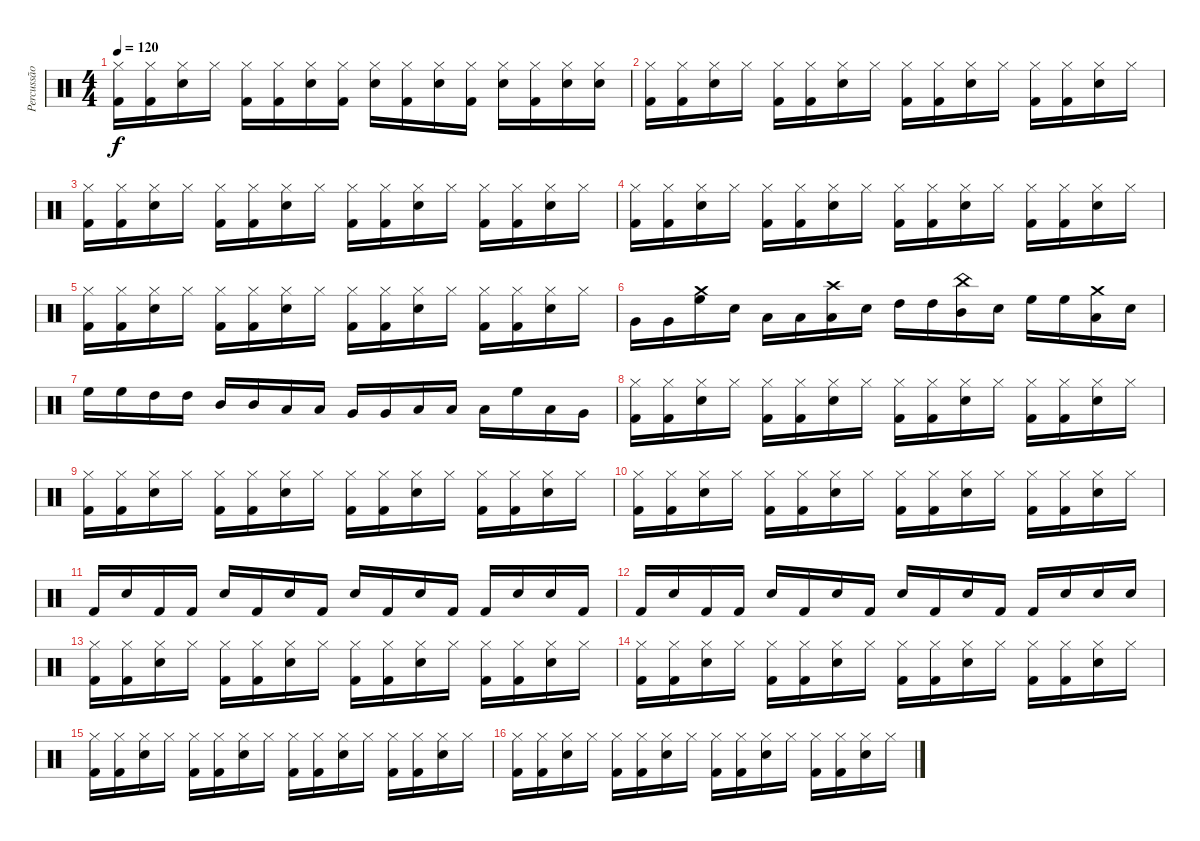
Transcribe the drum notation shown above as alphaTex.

\track ("Percussão" "Percussão") {instrument percussion}
\staff {score}
\articulation defaults
\ts (4 4)
\tempo 120
\clef neutral
\ks c
("Hi-Hat (closed)" "Kick (hit) 2").16{dy f} ("Hi-Hat (closed)" "Kick (hit) 2").16 ("Hi-Hat (closed)" "Electric Snare (hit)").16 "Hi-Hat (closed)".16 ("Hi-Hat (closed)" "Kick (hit) 2").16 ("Hi-Hat (closed)" "Kick (hit) 2").16 ("Hi-Hat (closed)" "Electric Snare (hit)").16 ("Hi-Hat (closed)" "Kick (hit) 2").16 ("Hi-Hat (closed)" "Electric Snare (hit)").16 ("Hi-Hat (closed)" "Kick (hit) 2").16 ("Hi-Hat (closed)" "Electric Snare (hit)").16 ("Hi-Hat (closed)" "Kick (hit) 2").16 ("Hi-Hat (closed)" "Electric Snare (hit)").16 ("Hi-Hat (closed)" "Kick (hit) 2").16 ("Hi-Hat (closed)" "Electric Snare (hit)").16 ("Hi-Hat (closed)" "Electric Snare (hit)").16 |
("Hi-Hat (closed)" "Kick (hit) 2").16 ("Hi-Hat (closed)" "Kick (hit) 2").16 ("Hi-Hat (closed)" "Electric Snare (hit)").16 "Hi-Hat (closed)".16 ("Hi-Hat (closed)" "Kick (hit) 2").16 ("Hi-Hat (closed)" "Kick (hit) 2").16 ("Hi-Hat (closed)" "Electric Snare (hit)").16 "Hi-Hat (closed)".16 ("Hi-Hat (closed)" "Kick (hit) 2").16 ("Hi-Hat (closed)" "Kick (hit) 2").16 ("Hi-Hat (closed)" "Electric Snare (hit)").16 "Hi-Hat (closed)".16 ("Hi-Hat (closed)" "Kick (hit) 2").16 ("Hi-Hat (closed)" "Kick (hit) 2").16 ("Hi-Hat (closed)" "Electric Snare (hit)").16 "Hi-Hat (closed)".16 |
("Hi-Hat (closed)" "Kick (hit) 2").16 ("Hi-Hat (closed)" "Kick (hit) 2").16 ("Hi-Hat (closed)" "Electric Snare (hit)").16 "Hi-Hat (closed)".16 ("Hi-Hat (closed)" "Kick (hit) 2").16 ("Hi-Hat (closed)" "Kick (hit) 2").16 ("Hi-Hat (closed)" "Electric Snare (hit)").16 "Hi-Hat (closed)".16 ("Hi-Hat (closed)" "Kick (hit) 2").16 ("Hi-Hat (closed)" "Kick (hit) 2").16 ("Hi-Hat (closed)" "Electric Snare (hit)").16 "Hi-Hat (closed)".16 ("Hi-Hat (closed)" "Kick (hit) 2").16 ("Hi-Hat (closed)" "Kick (hit) 2").16 ("Hi-Hat (closed)" "Electric Snare (hit)").16 "Hi-Hat (closed)".16 |
("Hi-Hat (closed)" "Kick (hit) 2").16 ("Hi-Hat (closed)" "Kick (hit) 2").16 ("Hi-Hat (closed)" "Electric Snare (hit)").16 "Hi-Hat (closed)".16 ("Hi-Hat (closed)" "Kick (hit) 2").16 ("Hi-Hat (closed)" "Kick (hit) 2").16 ("Hi-Hat (closed)" "Electric Snare (hit)").16 "Hi-Hat (closed)".16 ("Hi-Hat (closed)" "Kick (hit) 2").16 ("Hi-Hat (closed)" "Kick (hit) 2").16 ("Hi-Hat (closed)" "Electric Snare (hit)").16 "Hi-Hat (closed)".16 ("Hi-Hat (closed)" "Kick (hit) 2").16 ("Hi-Hat (closed)" "Kick (hit) 2").16 ("Hi-Hat (closed)" "Electric Snare (hit)").16 "Hi-Hat (closed)".16 |
("Hi-Hat (closed)" "Kick (hit) 2").16 ("Hi-Hat (closed)" "Kick (hit) 2").16 ("Hi-Hat (closed)" "Electric Snare (hit)").16 "Hi-Hat (closed)".16 ("Hi-Hat (closed)" "Kick (hit) 2").16 ("Hi-Hat (closed)" "Kick (hit) 2").16 ("Hi-Hat (closed)" "Electric Snare (hit)").16 "Hi-Hat (closed)".16 ("Hi-Hat (closed)" "Kick (hit) 2").16 ("Hi-Hat (closed)" "Kick (hit) 2").16 ("Hi-Hat (closed)" "Electric Snare (hit)").16 "Hi-Hat (closed)".16 ("Hi-Hat (closed)" "Kick (hit) 2").16 ("Hi-Hat (closed)" "Kick (hit) 2").16 ("Hi-Hat (closed)" "Electric Snare (hit)").16 "Hi-Hat (closed)".16 |
"Very Low Tom (hit)".16 "Very Low Tom (hit)".16 ("Crash medium (hit)" "High Floor Tom (hit)").16 "Electric Snare (hit)".16 "Low Floor Tom (hit)".16 "Low Floor Tom (hit)".16 ("Crash high (hit)" "Low Tom (hit)").16 "Electric Snare (hit)".16 "High Tom (hit)".16 "High Tom (hit)".16 ("China (hit)" "Mid Tom (hit)").16 "Electric Snare (hit)".16 "High Floor Tom (hit)".16 "High Floor Tom (hit)".16 ("Crash medium (hit)" "Low Floor Tom (hit)").16 "Electric Snare (hit)".16 |
"High Floor Tom (hit)".16 "High Floor Tom (hit)".16 "High Tom (hit)".16 "High Tom (hit)".16 "Mid Tom (hit)".16 "Mid Tom (hit)".16 "Low Tom (hit)".16 "Low Tom (hit)".16 "Very Low Tom (hit)".16 "Very Low Tom (hit)".16 "Low Floor Tom (hit)".16 "Low Floor Tom (hit)".16 "Low Tom (hit)".16 "High Floor Tom (hit)".16 "Low Floor Tom (hit)".16 "Very Low Tom (hit)".16 |
("Hi-Hat (closed)" "Kick (hit) 2").16 ("Hi-Hat (closed)" "Kick (hit) 2").16 ("Hi-Hat (closed)" "Electric Snare (hit)").16 "Hi-Hat (closed)".16 ("Hi-Hat (closed)" "Kick (hit) 2").16 ("Hi-Hat (closed)" "Kick (hit) 2").16 ("Hi-Hat (closed)" "Electric Snare (hit)").16 "Hi-Hat (closed)".16 ("Hi-Hat (closed)" "Kick (hit) 2").16 ("Hi-Hat (closed)" "Kick (hit) 2").16 ("Hi-Hat (closed)" "Electric Snare (hit)").16 "Hi-Hat (closed)".16 ("Hi-Hat (closed)" "Kick (hit) 2").16 ("Hi-Hat (closed)" "Kick (hit) 2").16 ("Hi-Hat (closed)" "Electric Snare (hit)").16 "Hi-Hat (closed)".16 |
("Hi-Hat (closed)" "Kick (hit) 2").16 ("Hi-Hat (closed)" "Kick (hit) 2").16 ("Hi-Hat (closed)" "Electric Snare (hit)").16 "Hi-Hat (closed)".16 ("Hi-Hat (closed)" "Kick (hit) 2").16 ("Hi-Hat (closed)" "Kick (hit) 2").16 ("Hi-Hat (closed)" "Electric Snare (hit)").16 "Hi-Hat (closed)".16 ("Hi-Hat (closed)" "Kick (hit) 2").16 ("Hi-Hat (closed)" "Kick (hit) 2").16 ("Hi-Hat (closed)" "Electric Snare (hit)").16 "Hi-Hat (closed)".16 ("Hi-Hat (closed)" "Kick (hit) 2").16 ("Hi-Hat (closed)" "Kick (hit) 2").16 ("Hi-Hat (closed)" "Electric Snare (hit)").16 "Hi-Hat (closed)".16 |
("Hi-Hat (closed)" "Kick (hit) 2").16 ("Hi-Hat (closed)" "Kick (hit) 2").16 ("Hi-Hat (closed)" "Electric Snare (hit)").16 "Hi-Hat (closed)".16 ("Hi-Hat (closed)" "Kick (hit) 2").16 ("Hi-Hat (closed)" "Kick (hit) 2").16 ("Hi-Hat (closed)" "Electric Snare (hit)").16 "Hi-Hat (closed)".16 ("Hi-Hat (closed)" "Kick (hit) 2").16 ("Hi-Hat (closed)" "Kick (hit) 2").16 ("Hi-Hat (closed)" "Electric Snare (hit)").16 "Hi-Hat (closed)".16 ("Hi-Hat (closed)" "Kick (hit) 2").16 ("Hi-Hat (closed)" "Kick (hit) 2").16 ("Hi-Hat (closed)" "Electric Snare (hit)").16 "Hi-Hat (closed)".16 |
"Kick (hit) 2".16 "Electric Snare (hit)".16 "Kick (hit) 2".16 "Kick (hit) 2".16 "Electric Snare (hit)".16 "Kick (hit) 2".16 "Electric Snare (hit)".16 "Kick (hit) 2".16 "Electric Snare (hit)".16 "Kick (hit) 2".16 "Electric Snare (hit)".16 "Kick (hit) 2".16 "Kick (hit) 2".16 "Electric Snare (hit)".16 "Electric Snare (hit)".16 "Kick (hit) 2".16 |
"Kick (hit) 2".16 "Electric Snare (hit)".16 "Kick (hit) 2".16 "Kick (hit) 2".16 "Electric Snare (hit)".16 "Kick (hit) 2".16 "Electric Snare (hit)".16 "Kick (hit) 2".16 "Electric Snare (hit)".16 "Kick (hit) 2".16 "Electric Snare (hit)".16 "Kick (hit) 2".16 "Kick (hit) 2".16 "Electric Snare (hit)".16 "Electric Snare (hit)".16 "Electric Snare (hit)".16 |
("Hi-Hat (closed)" "Kick (hit) 2").16 ("Hi-Hat (closed)" "Kick (hit) 2").16 ("Hi-Hat (closed)" "Electric Snare (hit)").16 "Hi-Hat (closed)".16 ("Hi-Hat (closed)" "Kick (hit) 2").16 ("Hi-Hat (closed)" "Kick (hit) 2").16 ("Hi-Hat (closed)" "Electric Snare (hit)").16 "Hi-Hat (closed)".16 ("Hi-Hat (closed)" "Kick (hit) 2").16 ("Hi-Hat (closed)" "Kick (hit) 2").16 ("Hi-Hat (closed)" "Electric Snare (hit)").16 "Hi-Hat (closed)".16 ("Hi-Hat (closed)" "Kick (hit) 2").16 ("Hi-Hat (closed)" "Kick (hit) 2").16 ("Hi-Hat (closed)" "Electric Snare (hit)").16 "Hi-Hat (closed)".16 |
("Hi-Hat (closed)" "Kick (hit) 2").16 ("Hi-Hat (closed)" "Kick (hit) 2").16 ("Hi-Hat (closed)" "Electric Snare (hit)").16 "Hi-Hat (closed)".16 ("Hi-Hat (closed)" "Kick (hit) 2").16 ("Hi-Hat (closed)" "Kick (hit) 2").16 ("Hi-Hat (closed)" "Electric Snare (hit)").16 "Hi-Hat (closed)".16 ("Hi-Hat (closed)" "Kick (hit) 2").16 ("Hi-Hat (closed)" "Kick (hit) 2").16 ("Hi-Hat (closed)" "Electric Snare (hit)").16 "Hi-Hat (closed)".16 ("Hi-Hat (closed)" "Kick (hit) 2").16 ("Hi-Hat (closed)" "Kick (hit) 2").16 ("Hi-Hat (closed)" "Electric Snare (hit)").16 "Hi-Hat (closed)".16 |
("Hi-Hat (closed)" "Kick (hit) 2").16 ("Hi-Hat (closed)" "Kick (hit) 2").16 ("Hi-Hat (closed)" "Electric Snare (hit)").16 "Hi-Hat (closed)".16 ("Hi-Hat (closed)" "Kick (hit) 2").16 ("Hi-Hat (closed)" "Kick (hit) 2").16 ("Hi-Hat (closed)" "Electric Snare (hit)").16 "Hi-Hat (closed)".16 ("Hi-Hat (closed)" "Kick (hit) 2").16 ("Hi-Hat (closed)" "Kick (hit) 2").16 ("Hi-Hat (closed)" "Electric Snare (hit)").16 "Hi-Hat (closed)".16 ("Hi-Hat (closed)" "Kick (hit) 2").16 ("Hi-Hat (closed)" "Kick (hit) 2").16 ("Hi-Hat (closed)" "Electric Snare (hit)").16 "Hi-Hat (closed)".16 |
("Hi-Hat (closed)" "Kick (hit) 2").16 ("Hi-Hat (closed)" "Kick (hit) 2").16 ("Hi-Hat (closed)" "Electric Snare (hit)").16 "Hi-Hat (closed)".16 ("Hi-Hat (closed)" "Kick (hit) 2").16 ("Hi-Hat (closed)" "Kick (hit) 2").16 ("Hi-Hat (closed)" "Electric Snare (hit)").16 "Hi-Hat (closed)".16 ("Hi-Hat (closed)" "Kick (hit) 2").16 ("Hi-Hat (closed)" "Kick (hit) 2").16 ("Hi-Hat (closed)" "Electric Snare (hit)").16 "Hi-Hat (closed)".16 ("Hi-Hat (closed)" "Kick (hit) 2").16 ("Hi-Hat (closed)" "Kick (hit) 2").16 ("Hi-Hat (closed)" "Electric Snare (hit)").16 "Hi-Hat (closed)".16
